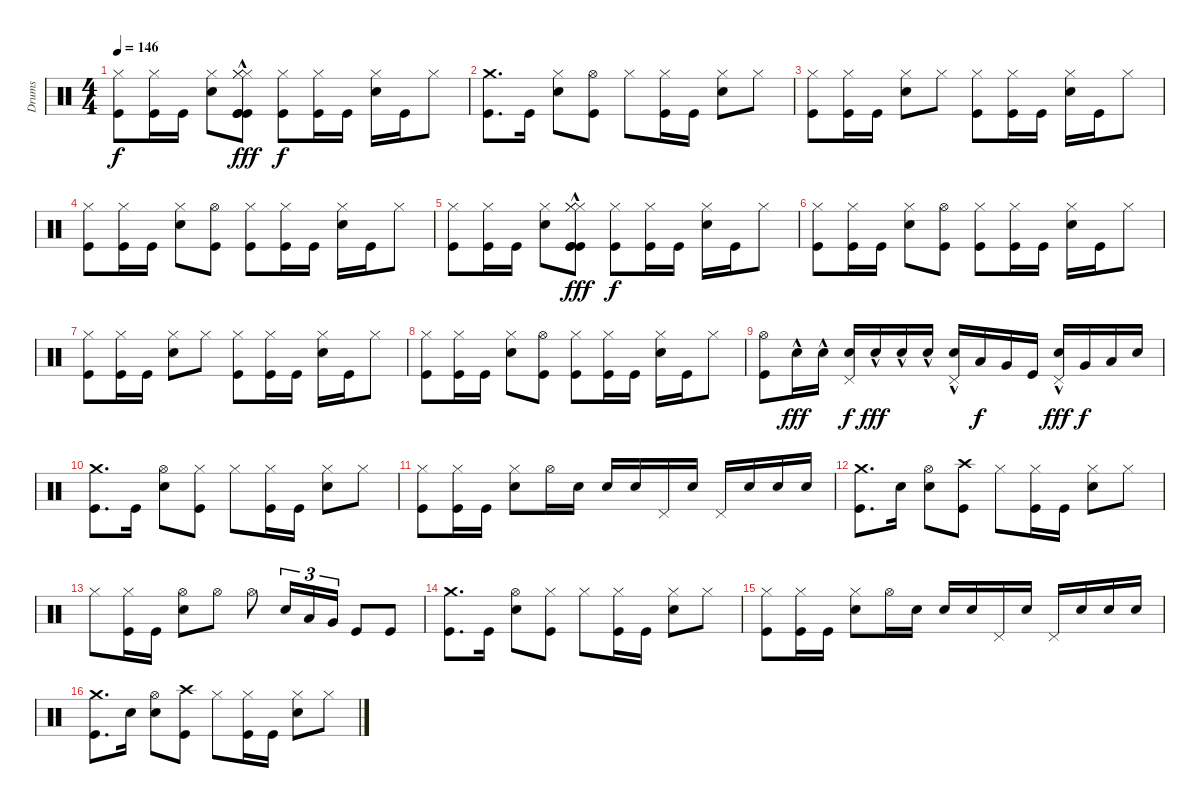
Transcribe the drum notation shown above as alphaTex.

\track ("Drums" "Drums") {instrument percussion}
\staff {score}
\articulation defaults
\ts (4 4)
\tempo 146
\clef neutral
\ks c
("Hi-Hat (closed)" "Kick (hit)").8{dy f} ("Hi-Hat (closed)" "Kick (hit)").16 "Kick (hit)".16 ("Hi-Hat (closed)" "Electric Snare (hit)").8 ("Hi-Hat (closed)"{hac} "Hi-Hat (closed)"{hac} "Hi-Hat (closed)"{hac} "Kick (hit)"{hac} "Kick (hit)"{hac} "Kick (hit)"{hac}).8{dy fff} ("Hi-Hat (closed)" "Kick (hit)").8{dy f} ("Hi-Hat (closed)" "Kick (hit)").16 "Kick (hit)".16 ("Hi-Hat (closed)" "Electric Snare (hit)").16 "Kick (hit)".16 "Hi-Hat (closed)".8 |
("Crash medium (hit)" "Kick (hit)").8{d} "Kick (hit)".16 ("Hi-Hat (closed)" "Electric Snare (hit)").8 ("Hi-Hat (open)" "Kick (hit)").8 "Hi-Hat (closed)".8 ("Hi-Hat (closed)" "Kick (hit)").16 "Kick (hit)".16 ("Hi-Hat (closed)" "Electric Snare (hit)").8 "Hi-Hat (closed)".8 |
("Hi-Hat (closed)" "Kick (hit)").8 ("Hi-Hat (closed)" "Kick (hit)").16 "Kick (hit)".16 ("Hi-Hat (closed)" "Electric Snare (hit)").8 "Hi-Hat (closed)".8 ("Hi-Hat (closed)" "Kick (hit)").8 ("Hi-Hat (closed)" "Kick (hit)").16 "Kick (hit)".16 ("Hi-Hat (closed)" "Electric Snare (hit)").16 "Kick (hit)".16 "Hi-Hat (closed)".8 |
("Hi-Hat (closed)" "Kick (hit)").8 ("Hi-Hat (closed)" "Kick (hit)").16 "Kick (hit)".16 ("Hi-Hat (closed)" "Electric Snare (hit)").8 ("Hi-Hat (open)" "Kick (hit)").8 ("Hi-Hat (closed)" "Kick (hit)").8 ("Hi-Hat (closed)" "Kick (hit)").16 "Kick (hit)".16 ("Hi-Hat (closed)" "Electric Snare (hit)").16 "Kick (hit)".16 "Hi-Hat (closed)".8 |
("Hi-Hat (closed)" "Kick (hit)").8 ("Hi-Hat (closed)" "Kick (hit)").16 "Kick (hit)".16 ("Hi-Hat (closed)" "Electric Snare (hit)").8 ("Hi-Hat (closed)"{hac} "Hi-Hat (closed)"{hac} "Hi-Hat (closed)"{hac} "Kick (hit)"{hac} "Kick (hit)"{hac} "Kick (hit)"{hac}).8{dy fff} ("Hi-Hat (closed)" "Kick (hit)").8{dy f} ("Hi-Hat (closed)" "Kick (hit)").16 "Kick (hit)".16 ("Hi-Hat (closed)" "Electric Snare (hit)").16 "Kick (hit)".16 "Hi-Hat (closed)".8 |
("Hi-Hat (closed)" "Kick (hit)").8 ("Hi-Hat (closed)" "Kick (hit)").16 "Kick (hit)".16 ("Hi-Hat (closed)" "Electric Snare (hit)").8 ("Hi-Hat (open)" "Kick (hit)").8 ("Hi-Hat (closed)" "Kick (hit)").8 ("Hi-Hat (closed)" "Kick (hit)").16 "Kick (hit)".16 ("Hi-Hat (closed)" "Electric Snare (hit)").16 "Kick (hit)".16 "Hi-Hat (closed)".8 |
("Hi-Hat (closed)" "Kick (hit)").8 ("Hi-Hat (closed)" "Kick (hit)").16 "Kick (hit)".16 ("Hi-Hat (closed)" "Electric Snare (hit)").8 "Hi-Hat (closed)".8 ("Hi-Hat (closed)" "Kick (hit)").8 ("Hi-Hat (closed)" "Kick (hit)").16 "Kick (hit)".16 ("Hi-Hat (closed)" "Electric Snare (hit)").16 "Kick (hit)".16 "Hi-Hat (closed)".8 |
("Hi-Hat (closed)" "Kick (hit)").8 ("Hi-Hat (closed)" "Kick (hit)").16 "Kick (hit)".16 ("Hi-Hat (closed)" "Electric Snare (hit)").8 ("Hi-Hat (open)" "Kick (hit)").8 ("Hi-Hat (closed)" "Kick (hit)").8 ("Hi-Hat (closed)" "Kick (hit)").16 "Kick (hit)".16 ("Hi-Hat (closed)" "Electric Snare (hit)").16 "Kick (hit)".16 "Hi-Hat (closed)".8 |
("Hi-Hat (open)" "Kick (hit)").8 "Electric Snare (hit)"{hac}.16{dy fff} "Electric Snare (hit)"{hac}.16 ("Pedal Hi-Hat (hit)" "Electric Snare (hit)").16{dy f} "Electric Snare (hit)"{hac}.16{dy fff} "Electric Snare (hit)"{hac}.16 "Electric Snare (hit)"{hac}.16 ("Pedal Hi-Hat (hit)" "Electric Snare (hit)"{hac}).16 "Low Tom (hit)".16{dy f} "Very Low Tom (hit)".16 "Kick (hit)".16 ("Pedal Hi-Hat (hit)" "Electric Snare (hit)"{hac}).16{dy fff} "Very Low Tom (hit)".16{dy f} "Low Floor Tom (hit)".16 "Electric Snare (hit)".16 |
("Crash medium (hit)" "Kick (hit)").8{d} "Kick (hit)".16 ("Hi-Hat (open)" "Electric Snare (hit)").8 ("Hi-Hat (closed)" "Kick (hit)").8 "Hi-Hat (closed)".8 ("Hi-Hat (closed)" "Kick (hit)").16 "Kick (hit)".16 ("Hi-Hat (closed)" "Electric Snare (hit)").8 "Hi-Hat (closed)".8 |
("Hi-Hat (closed)" "Kick (hit)").8 ("Hi-Hat (closed)" "Kick (hit)").16 "Kick (hit)".16 ("Hi-Hat (closed)" "Electric Snare (hit)").8 "Hi-Hat (open)".16 "Electric Snare (hit)".16 "Electric Snare (hit)".16 "Electric Snare (hit)".16 "Pedal Hi-Hat (hit)".16 "Electric Snare (hit)".16 "Pedal Hi-Hat (hit)".16 "Electric Snare (hit)".16 "Electric Snare (hit)".16 "Electric Snare (hit)".16 |
("Crash medium (hit)" "Kick (hit)").8{d} "Electric Snare (hit)".16 ("Hi-Hat (open)" "Electric Snare (hit)").8 ("Crash high (hit)" "Kick (hit)").8 "Hi-Hat (closed)".8 ("Hi-Hat (closed)" "Kick (hit)").16 "Kick (hit)".16 ("Hi-Hat (closed)" "Electric Snare (hit)").8 "Hi-Hat (closed)".8 |
"Hi-Hat (closed)".8 ("Hi-Hat (closed)" "Kick (hit)").16 "Kick (hit)".16 ("Hi-Hat (open)" "Electric Snare (hit)").8 "Hi-Hat (open)".8 "Hi-Hat (open)".8 "Electric Snare (hit)".16{tu (3 2)} "Low Tom (hit)".16{tu (3 2)} "Very Low Tom (hit)".16{tu (3 2)} "Kick (hit)".8 "Kick (hit)".8 |
("Crash medium (hit)" "Kick (hit)").8{d} "Kick (hit)".16 ("Hi-Hat (open)" "Electric Snare (hit)").8 ("Hi-Hat (closed)" "Kick (hit)").8 "Hi-Hat (closed)".8 ("Hi-Hat (closed)" "Kick (hit)").16 "Kick (hit)".16 ("Hi-Hat (closed)" "Electric Snare (hit)").8 "Hi-Hat (closed)".8 |
("Hi-Hat (closed)" "Kick (hit)").8 ("Hi-Hat (closed)" "Kick (hit)").16 "Kick (hit)".16 ("Hi-Hat (closed)" "Electric Snare (hit)").8 "Hi-Hat (open)".16 "Electric Snare (hit)".16 "Electric Snare (hit)".16 "Electric Snare (hit)".16 "Pedal Hi-Hat (hit)".16 "Electric Snare (hit)".16 "Pedal Hi-Hat (hit)".16 "Electric Snare (hit)".16 "Electric Snare (hit)".16 "Electric Snare (hit)".16 |
("Crash medium (hit)" "Kick (hit)").8{d} "Electric Snare (hit)".16 ("Hi-Hat (open)" "Electric Snare (hit)").8 ("Crash high (hit)" "Kick (hit)").8 "Hi-Hat (closed)".8 ("Hi-Hat (closed)" "Kick (hit)").16 "Kick (hit)".16 ("Hi-Hat (closed)" "Electric Snare (hit)").8 "Hi-Hat (closed)".8
